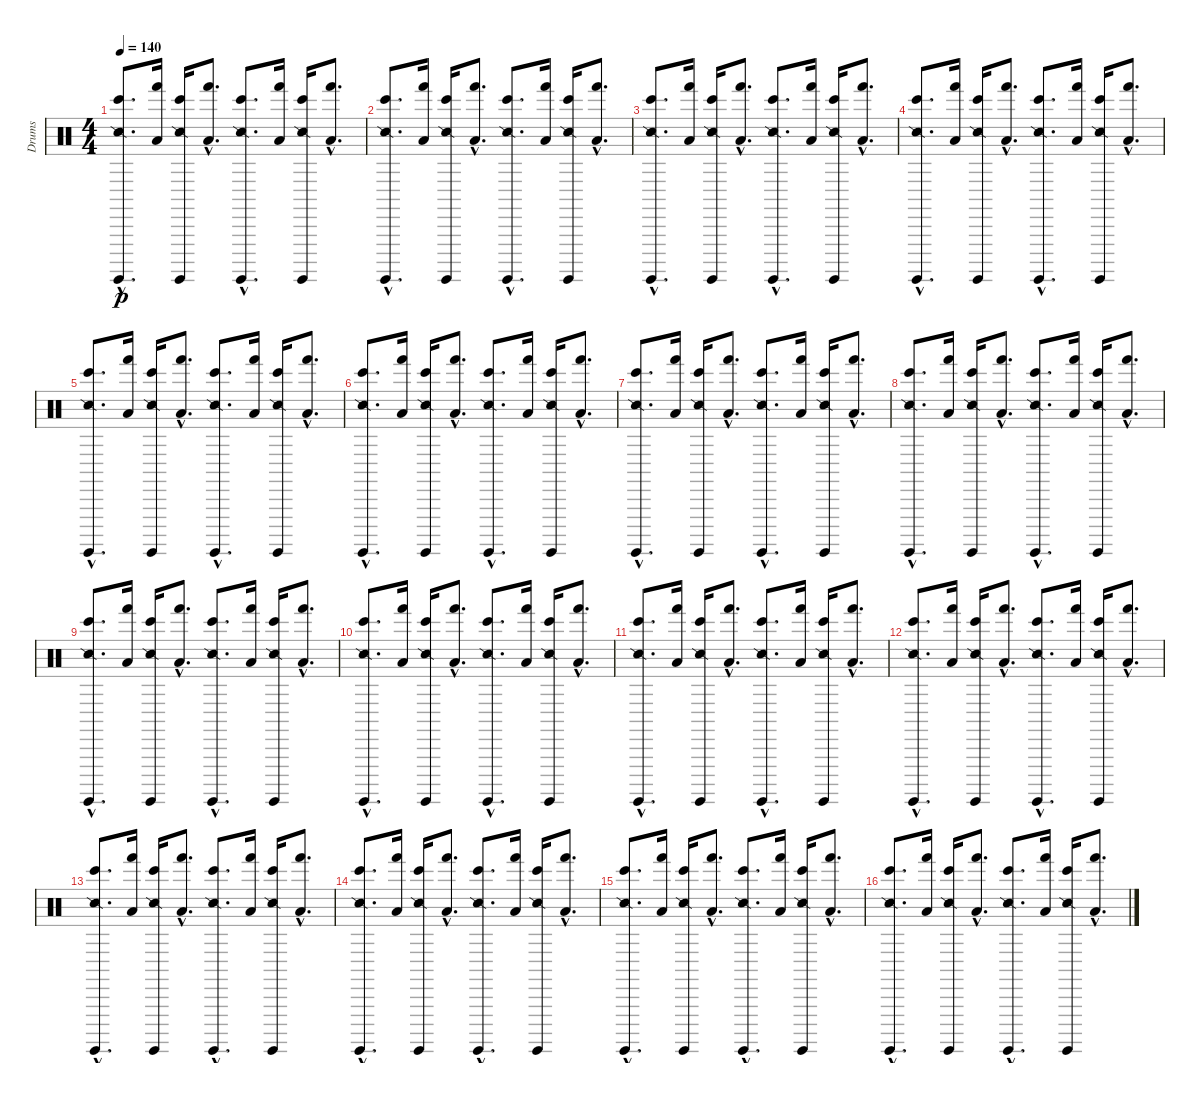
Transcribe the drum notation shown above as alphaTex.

\track ("Drums" "Drums") {instrument percussion}
\staff {score}
\articulation defaults
\ts (4 4)
\tempo 140
\clef neutral
\ks c
("Surdo (hit)"{hac} "Snare (side stick) 2"{hac} "Bongo High (hit)"{hac}).8{d dy p} ("Hand (hit)" "Low Floor Tom (hit)").16 ("Surdo (hit)" "Snare (side stick) 2" "Bongo High (hit)").16 ("Hand (hit)"{hac} "Low Floor Tom (hit)"{hac}).8{d} ("Surdo (hit)"{hac} "Snare (side stick) 2"{hac} "Bongo High (hit)"{hac}).8{d} ("Hand (hit)" "Low Floor Tom (hit)").16 ("Surdo (hit)" "Snare (side stick) 2" "Bongo High (hit)").16 ("Hand (hit)"{hac} "Low Floor Tom (hit)"{hac}).8{d} |
("Surdo (hit)"{hac} "Snare (side stick) 2"{hac} "Bongo High (hit)"{hac}).8{d} ("Hand (hit)" "Low Floor Tom (hit)").16 ("Surdo (hit)" "Snare (side stick) 2" "Bongo High (hit)").16 ("Hand (hit)"{hac} "Low Floor Tom (hit)"{hac}).8{d} ("Surdo (hit)"{hac} "Snare (side stick) 2"{hac} "Bongo High (hit)"{hac}).8{d} ("Hand (hit)" "Low Floor Tom (hit)").16 ("Surdo (hit)" "Snare (side stick) 2" "Bongo High (hit)").16 ("Hand (hit)"{hac} "Low Floor Tom (hit)"{hac}).8{d} |
("Surdo (hit)"{hac} "Snare (side stick) 2"{hac} "Bongo High (hit)"{hac}).8{d} ("Hand (hit)" "Low Floor Tom (hit)").16 ("Surdo (hit)" "Snare (side stick) 2" "Bongo High (hit)").16 ("Hand (hit)"{hac} "Low Floor Tom (hit)"{hac}).8{d} ("Surdo (hit)"{hac} "Snare (side stick) 2"{hac} "Bongo High (hit)"{hac}).8{d} ("Hand (hit)" "Low Floor Tom (hit)").16 ("Surdo (hit)" "Snare (side stick) 2" "Bongo High (hit)").16 ("Hand (hit)"{hac} "Low Floor Tom (hit)"{hac}).8{d} |
("Surdo (hit)"{hac} "Snare (side stick) 2"{hac} "Bongo High (hit)"{hac}).8{d} ("Hand (hit)" "Low Floor Tom (hit)").16 ("Surdo (hit)" "Snare (side stick) 2" "Bongo High (hit)").16 ("Hand (hit)"{hac} "Low Floor Tom (hit)"{hac}).8{d} ("Surdo (hit)"{hac} "Snare (side stick) 2"{hac} "Bongo High (hit)"{hac}).8{d} ("Hand (hit)" "Low Floor Tom (hit)").16 ("Surdo (hit)" "Snare (side stick) 2" "Bongo High (hit)").16 ("Hand (hit)"{hac} "Low Floor Tom (hit)"{hac}).8{d} |
("Surdo (hit)"{hac} "Snare (side stick) 2"{hac} "Bongo High (hit)"{hac}).8{d} ("Hand (hit)" "Low Floor Tom (hit)").16 ("Surdo (hit)" "Snare (side stick) 2" "Bongo High (hit)").16 ("Hand (hit)"{hac} "Low Floor Tom (hit)"{hac}).8{d} ("Surdo (hit)"{hac} "Snare (side stick) 2"{hac} "Bongo High (hit)"{hac}).8{d} ("Hand (hit)" "Low Floor Tom (hit)").16 ("Surdo (hit)" "Snare (side stick) 2" "Bongo High (hit)").16 ("Hand (hit)"{hac} "Low Floor Tom (hit)"{hac}).8{d} |
("Surdo (hit)"{hac} "Snare (side stick) 2"{hac} "Bongo High (hit)"{hac}).8{d} ("Hand (hit)" "Low Floor Tom (hit)").16 ("Surdo (hit)" "Snare (side stick) 2" "Bongo High (hit)").16 ("Hand (hit)"{hac} "Low Floor Tom (hit)"{hac}).8{d} ("Surdo (hit)"{hac} "Snare (side stick) 2"{hac} "Bongo High (hit)"{hac}).8{d} ("Hand (hit)" "Low Floor Tom (hit)").16 ("Surdo (hit)" "Snare (side stick) 2" "Bongo High (hit)").16 ("Hand (hit)"{hac} "Low Floor Tom (hit)"{hac}).8{d} |
("Surdo (hit)"{hac} "Snare (side stick) 2"{hac} "Bongo High (hit)"{hac}).8{d} ("Hand (hit)" "Low Floor Tom (hit)").16 ("Surdo (hit)" "Snare (side stick) 2" "Bongo High (hit)").16 ("Hand (hit)"{hac} "Low Floor Tom (hit)"{hac}).8{d} ("Surdo (hit)"{hac} "Snare (side stick) 2"{hac} "Bongo High (hit)"{hac}).8{d} ("Hand (hit)" "Low Floor Tom (hit)").16 ("Surdo (hit)" "Snare (side stick) 2" "Bongo High (hit)").16 ("Hand (hit)"{hac} "Low Floor Tom (hit)"{hac}).8{d} |
("Surdo (hit)"{hac} "Snare (side stick) 2"{hac} "Bongo High (hit)"{hac}).8{d} ("Hand (hit)" "Low Floor Tom (hit)").16 ("Surdo (hit)" "Snare (side stick) 2" "Bongo High (hit)").16 ("Hand (hit)"{hac} "Low Floor Tom (hit)"{hac}).8{d} ("Surdo (hit)"{hac} "Snare (side stick) 2"{hac} "Bongo High (hit)"{hac}).8{d} ("Hand (hit)" "Low Floor Tom (hit)").16 ("Surdo (hit)" "Snare (side stick) 2" "Bongo High (hit)").16 ("Hand (hit)"{hac} "Low Floor Tom (hit)"{hac}).8{d} |
("Surdo (hit)"{hac} "Snare (side stick) 2"{hac} "Bongo High (hit)"{hac}).8{d} ("Hand (hit)" "Low Floor Tom (hit)").16 ("Surdo (hit)" "Snare (side stick) 2" "Bongo High (hit)").16 ("Hand (hit)"{hac} "Low Floor Tom (hit)"{hac}).8{d} ("Surdo (hit)"{hac} "Snare (side stick) 2"{hac} "Bongo High (hit)"{hac}).8{d} ("Hand (hit)" "Low Floor Tom (hit)").16 ("Surdo (hit)" "Snare (side stick) 2" "Bongo High (hit)").16 ("Hand (hit)"{hac} "Low Floor Tom (hit)"{hac}).8{d} |
("Surdo (hit)"{hac} "Snare (side stick) 2"{hac} "Bongo High (hit)"{hac}).8{d} ("Hand (hit)" "Low Floor Tom (hit)").16 ("Surdo (hit)" "Snare (side stick) 2" "Bongo High (hit)").16 ("Hand (hit)"{hac} "Low Floor Tom (hit)"{hac}).8{d} ("Surdo (hit)"{hac} "Snare (side stick) 2"{hac} "Bongo High (hit)"{hac}).8{d} ("Hand (hit)" "Low Floor Tom (hit)").16 ("Surdo (hit)" "Snare (side stick) 2" "Bongo High (hit)").16 ("Hand (hit)"{hac} "Low Floor Tom (hit)"{hac}).8{d} |
("Surdo (hit)"{hac} "Snare (side stick) 2"{hac} "Bongo High (hit)"{hac}).8{d} ("Hand (hit)" "Low Floor Tom (hit)").16 ("Surdo (hit)" "Snare (side stick) 2" "Bongo High (hit)").16 ("Hand (hit)"{hac} "Low Floor Tom (hit)"{hac}).8{d} ("Surdo (hit)"{hac} "Snare (side stick) 2"{hac} "Bongo High (hit)"{hac}).8{d} ("Hand (hit)" "Low Floor Tom (hit)").16 ("Surdo (hit)" "Snare (side stick) 2" "Bongo High (hit)").16 ("Hand (hit)"{hac} "Low Floor Tom (hit)"{hac}).8{d} |
("Surdo (hit)"{hac} "Snare (side stick) 2"{hac} "Bongo High (hit)"{hac}).8{d} ("Hand (hit)" "Low Floor Tom (hit)").16 ("Surdo (hit)" "Snare (side stick) 2" "Bongo High (hit)").16 ("Hand (hit)"{hac} "Low Floor Tom (hit)"{hac}).8{d} ("Surdo (hit)"{hac} "Snare (side stick) 2"{hac} "Bongo High (hit)"{hac}).8{d} ("Hand (hit)" "Low Floor Tom (hit)").16 ("Surdo (hit)" "Snare (side stick) 2" "Bongo High (hit)").16 ("Hand (hit)"{hac} "Low Floor Tom (hit)"{hac}).8{d} |
("Surdo (hit)"{hac} "Snare (side stick) 2"{hac} "Bongo High (hit)"{hac}).8{d} ("Hand (hit)" "Low Floor Tom (hit)").16 ("Surdo (hit)" "Snare (side stick) 2" "Bongo High (hit)").16 ("Hand (hit)"{hac} "Low Floor Tom (hit)"{hac}).8{d} ("Surdo (hit)"{hac} "Snare (side stick) 2"{hac} "Bongo High (hit)"{hac}).8{d} ("Hand (hit)" "Low Floor Tom (hit)").16 ("Surdo (hit)" "Snare (side stick) 2" "Bongo High (hit)").16 ("Hand (hit)"{hac} "Low Floor Tom (hit)"{hac}).8{d} |
("Surdo (hit)"{hac} "Snare (side stick) 2"{hac} "Bongo High (hit)"{hac}).8{d} ("Hand (hit)" "Low Floor Tom (hit)").16 ("Surdo (hit)" "Snare (side stick) 2" "Bongo High (hit)").16 ("Hand (hit)"{hac} "Low Floor Tom (hit)"{hac}).8{d} ("Surdo (hit)"{hac} "Snare (side stick) 2"{hac} "Bongo High (hit)"{hac}).8{d} ("Hand (hit)" "Low Floor Tom (hit)").16 ("Surdo (hit)" "Snare (side stick) 2" "Bongo High (hit)").16 ("Hand (hit)"{hac} "Low Floor Tom (hit)"{hac}).8{d} |
("Surdo (hit)"{hac} "Snare (side stick) 2"{hac} "Bongo High (hit)"{hac}).8{d} ("Hand (hit)" "Low Floor Tom (hit)").16 ("Surdo (hit)" "Snare (side stick) 2" "Bongo High (hit)").16 ("Hand (hit)"{hac} "Low Floor Tom (hit)"{hac}).8{d} ("Surdo (hit)"{hac} "Snare (side stick) 2"{hac} "Bongo High (hit)"{hac}).8{d} ("Hand (hit)" "Low Floor Tom (hit)").16 ("Surdo (hit)" "Snare (side stick) 2" "Bongo High (hit)").16 ("Hand (hit)"{hac} "Low Floor Tom (hit)"{hac}).8{d} |
("Surdo (hit)"{hac} "Snare (side stick) 2"{hac} "Bongo High (hit)"{hac}).8{d} ("Hand (hit)" "Low Floor Tom (hit)").16 ("Surdo (hit)" "Snare (side stick) 2" "Bongo High (hit)").16 ("Hand (hit)"{hac} "Low Floor Tom (hit)"{hac}).8{d} ("Surdo (hit)"{hac} "Snare (side stick) 2"{hac} "Bongo High (hit)"{hac}).8{d} ("Hand (hit)" "Low Floor Tom (hit)").16 ("Surdo (hit)" "Snare (side stick) 2" "Bongo High (hit)").16 ("Hand (hit)"{hac} "Low Floor Tom (hit)"{hac}).8{d}
